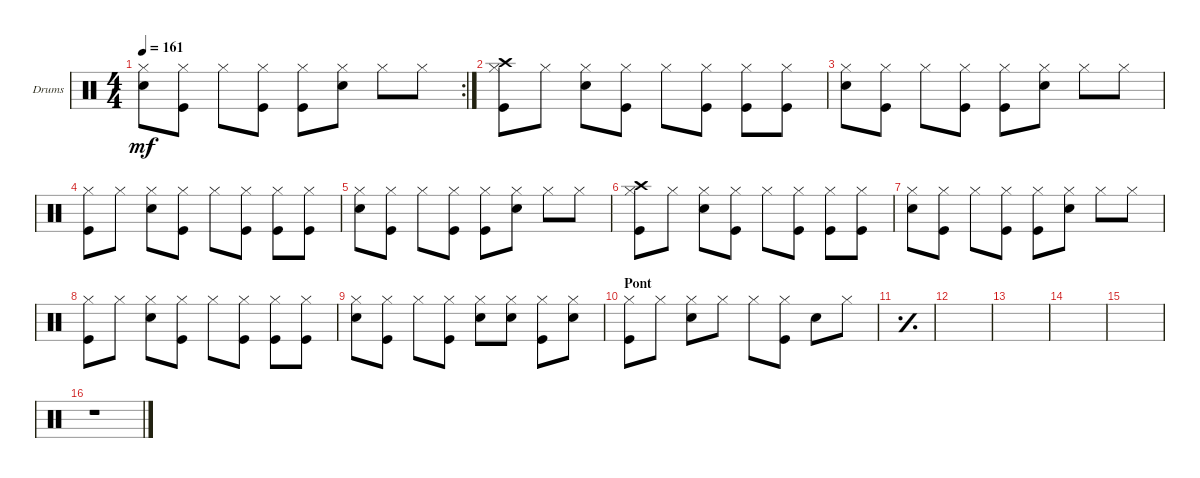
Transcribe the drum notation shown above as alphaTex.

\defaultSystemsLayout 4
\bracketExtendMode groupsimilarinstruments
\firstSystemTrackNameOrientation horizontal
\otherSystemsTrackNameOrientation horizontal
\chordDiagramsInScore
\track ("Drumkit" "Drums") {instrument percussion}
\staff {score}
\articulation defaults
\rc 2
\ts (4 4)
\tempo 161
\clef neutral
\ks c
("Hi-Hat (closed)" "Snare (hit) 2").8{dy mf} ("Hi-Hat (closed)" "Kick (hit)").8 "Hi-Hat (closed)".8 ("Hi-Hat (closed)" "Kick (hit)").8 ("Hi-Hat (closed)" "Kick (hit)").8 ("Hi-Hat (closed)" "Snare (hit) 2").8 "Hi-Hat (closed)".8 "Hi-Hat (closed)".8 |
("Hi-Hat (closed)" "Kick (hit)" "Crash high (hit)").8 "Hi-Hat (closed)".8 ("Hi-Hat (closed)" "Snare (hit) 2").8 ("Hi-Hat (closed)" "Kick (hit)").8 "Hi-Hat (closed)".8 ("Hi-Hat (closed)" "Kick (hit)").8 ("Hi-Hat (closed)" "Kick (hit)").8 ("Hi-Hat (closed)" "Kick (hit)").8 |
("Hi-Hat (closed)" "Snare (hit) 2").8 ("Hi-Hat (closed)" "Kick (hit)").8 "Hi-Hat (closed)".8 ("Hi-Hat (closed)" "Kick (hit)").8 ("Hi-Hat (closed)" "Kick (hit)").8 ("Hi-Hat (closed)" "Snare (hit) 2").8 "Hi-Hat (closed)".8 "Hi-Hat (closed)".8 |
("Hi-Hat (closed)" "Kick (hit)").8 "Hi-Hat (closed)".8 ("Hi-Hat (closed)" "Snare (hit) 2").8 ("Hi-Hat (closed)" "Kick (hit)").8 "Hi-Hat (closed)".8 ("Hi-Hat (closed)" "Kick (hit)").8 ("Hi-Hat (closed)" "Kick (hit)").8 ("Hi-Hat (closed)" "Kick (hit)").8 |
("Hi-Hat (closed)" "Snare (hit) 2").8 ("Hi-Hat (closed)" "Kick (hit)").8 "Hi-Hat (closed)".8 ("Hi-Hat (closed)" "Kick (hit)").8 ("Hi-Hat (closed)" "Kick (hit)").8 ("Hi-Hat (closed)" "Snare (hit) 2").8 "Hi-Hat (closed)".8 "Hi-Hat (closed)".8 |
("Hi-Hat (closed)" "Kick (hit)" "Crash high (hit)").8 "Hi-Hat (closed)".8 ("Hi-Hat (closed)" "Snare (hit) 2").8 ("Hi-Hat (closed)" "Kick (hit)").8 "Hi-Hat (closed)".8 ("Hi-Hat (closed)" "Kick (hit)").8 ("Hi-Hat (closed)" "Kick (hit)").8 ("Hi-Hat (closed)" "Kick (hit)").8 |
("Hi-Hat (closed)" "Snare (hit) 2").8 ("Hi-Hat (closed)" "Kick (hit)").8 "Hi-Hat (closed)".8 ("Hi-Hat (closed)" "Kick (hit)").8 ("Hi-Hat (closed)" "Kick (hit)").8 ("Hi-Hat (closed)" "Snare (hit) 2").8 "Hi-Hat (closed)".8 "Hi-Hat (closed)".8 |
("Hi-Hat (closed)" "Kick (hit)").8 "Hi-Hat (closed)".8 ("Hi-Hat (closed)" "Snare (hit) 2").8 ("Hi-Hat (closed)" "Kick (hit)").8 "Hi-Hat (closed)".8 ("Hi-Hat (closed)" "Kick (hit)").8 ("Hi-Hat (closed)" "Kick (hit)").8 ("Hi-Hat (closed)" "Kick (hit)").8 |
("Hi-Hat (closed)" "Snare (hit) 2").8 ("Hi-Hat (closed)" "Kick (hit)").8 "Hi-Hat (closed)".8 ("Hi-Hat (closed)" "Kick (hit)").8 ("Hi-Hat (closed)" "Snare (hit) 2").8 ("Hi-Hat (closed)" "Snare (hit) 2").8 ("Hi-Hat (closed)" "Kick (hit)").8 ("Hi-Hat (closed)" "Snare (hit) 2").8 |
\section ("" "Pont")
("Kick (hit)" "Hi-Hat (closed)").8 "Hi-Hat (closed)".8 ("Snare (hit) 2" "Hi-Hat (closed)").8 "Hi-Hat (closed)".8 "Hi-Hat (closed)".8 ("Kick (hit)" "Hi-Hat (closed)").8 "Snare (hit) 2".8 "Hi-Hat (closed)".8 |
\simile simple
|
|
|
|
|
\simile none
r.1
